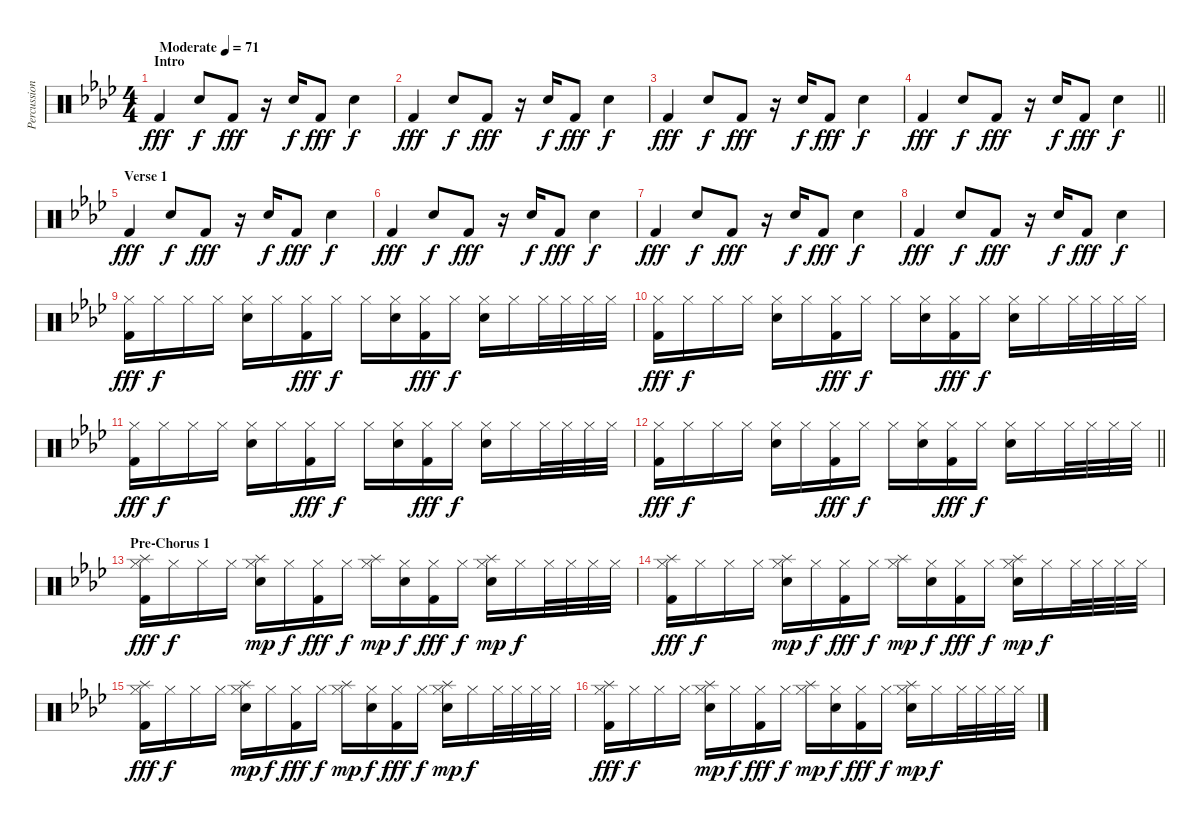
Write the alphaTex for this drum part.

\track ("Percussion" "Percussion") {instrument percussion}
\staff {score}
\articulation defaults
\ts (4 4)
\section ("" "Intro")
\tempo (71 "Moderate")
\clef neutral
\ks ab "Kick (hit) 2".4{dy fff} "Snare (hit) 2".8{dy f} "Kick (hit) 2".8{dy fff}
r.16 "Snare (hit) 2".16{dy f} "Kick (hit) 2".8{dy fff} "Snare (hit) 2".4{dy f} |
"Kick (hit) 2".4{dy fff} "Snare (hit) 2".8{dy f} "Kick (hit) 2".8{dy fff} r.16 "Snare (hit) 2".16{dy f} "Kick (hit) 2".8{dy fff} "Snare (hit) 2".4{dy f} |
"Kick (hit) 2".4{dy fff} "Snare (hit) 2".8{dy f} "Kick (hit) 2".8{dy fff} r.16 "Snare (hit) 2".16{dy f} "Kick (hit) 2".8{dy fff} "Snare (hit) 2".4{dy f} |
\barLineRight lightlight "Kick (hit) 2".4{dy fff} "Snare (hit) 2".8{dy f} "Kick (hit) 2".8{dy fff}
r.16 "Snare (hit) 2".16{dy f} "Kick (hit) 2".8{dy fff} "Snare (hit) 2".4{dy f} |
\section ("" "Verse 1")
"Kick (hit) 2".4{dy fff} "Snare (hit) 2".8{dy f} "Kick (hit) 2".8{dy fff} r.16 "Snare (hit) 2".16{dy f} "Kick (hit) 2".8{dy fff} "Snare (hit) 2".4{dy f} |
"Kick (hit) 2".4{dy fff} "Snare (hit) 2".8{dy f} "Kick (hit) 2".8{dy fff} r.16 "Snare (hit) 2".16{dy f} "Kick (hit) 2".8{dy fff} "Snare (hit) 2".4{dy f} |
"Kick (hit) 2".4{dy fff} "Snare (hit) 2".8{dy f} "Kick (hit) 2".8{dy fff} r.16 "Snare (hit) 2".16{dy f} "Kick (hit) 2".8{dy fff} "Snare (hit) 2".4{dy f} |
"Kick (hit) 2".4{dy fff} "Snare (hit) 2".8{dy f} "Kick (hit) 2".8{dy fff} r.16 "Snare (hit) 2".16{dy f} "Kick (hit) 2".8{dy fff} "Snare (hit) 2".4{dy f} |
("Hi-Hat (closed)" "Kick (hit) 2").16{dy fff} "Hi-Hat (closed)".16{dy f} "Hi-Hat (closed)".16 "Hi-Hat (closed)".16 ("Hi-Hat (closed)" "Snare (hit) 2").16 "Hi-Hat (closed)".16 ("Hi-Hat (closed)" "Kick (hit) 2").16{dy fff} "Hi-Hat (closed)".16{dy f} "Hi-Hat (closed)".16 ("Hi-Hat (closed)" "Snare (hit) 2").16 ("Hi-Hat (closed)" "Kick (hit) 2").16{dy fff} "Hi-Hat (closed)".16{dy f} ("Hi-Hat (closed)" "Snare (hit) 2").16 "Hi-Hat (closed)".16 "Hi-Hat (closed)".32 "Hi-Hat (closed)".32 "Hi-Hat (closed)".32 "Hi-Hat (closed)".32 |
("Hi-Hat (closed)" "Kick (hit) 2").16{dy fff} "Hi-Hat (closed)".16{dy f} "Hi-Hat (closed)".16 "Hi-Hat (closed)".16 ("Hi-Hat (closed)" "Snare (hit) 2").16 "Hi-Hat (closed)".16 ("Hi-Hat (closed)" "Kick (hit) 2").16{dy fff} "Hi-Hat (closed)".16{dy f} "Hi-Hat (closed)".16 ("Hi-Hat (closed)" "Snare (hit) 2").16 ("Hi-Hat (closed)" "Kick (hit) 2").16{dy fff} "Hi-Hat (closed)".16{dy f} ("Hi-Hat (closed)" "Snare (hit) 2").16 "Hi-Hat (closed)".16 "Hi-Hat (closed)".32 "Hi-Hat (closed)".32 "Hi-Hat (closed)".32 "Hi-Hat (closed)".32 |
("Hi-Hat (closed)" "Kick (hit) 2").16{dy fff} "Hi-Hat (closed)".16{dy f} "Hi-Hat (closed)".16 "Hi-Hat (closed)".16 ("Hi-Hat (closed)" "Snare (hit) 2").16 "Hi-Hat (closed)".16 ("Hi-Hat (closed)" "Kick (hit) 2").16{dy fff} "Hi-Hat (closed)".16{dy f} "Hi-Hat (closed)".16 ("Hi-Hat (closed)" "Snare (hit) 2").16 ("Hi-Hat (closed)" "Kick (hit) 2").16{dy fff} "Hi-Hat (closed)".16{dy f} ("Hi-Hat (closed)" "Snare (hit) 2").16 "Hi-Hat (closed)".16 "Hi-Hat (closed)".32 "Hi-Hat (closed)".32 "Hi-Hat (closed)".32 "Hi-Hat (closed)".32 |
\barLineRight lightlight
("Hi-Hat (closed)" "Kick (hit) 2").16{dy fff} "Hi-Hat (closed)".16{dy f} "Hi-Hat (closed)".16 "Hi-Hat (closed)".16 ("Hi-Hat (closed)" "Snare (hit) 2").16 "Hi-Hat (closed)".16 ("Hi-Hat (closed)" "Kick (hit) 2").16{dy fff} "Hi-Hat (closed)".16{dy f} "Hi-Hat (closed)".16 ("Hi-Hat (closed)" "Snare (hit) 2").16 ("Hi-Hat (closed)" "Kick (hit) 2").16{dy fff} "Hi-Hat (closed)".16{dy f} ("Hi-Hat (closed)" "Snare (hit) 2").16 "Hi-Hat (closed)".16 "Hi-Hat (closed)".32 "Hi-Hat (closed)".32 "Hi-Hat (closed)".32 "Hi-Hat (closed)".32 |
\section ("" "Pre-Chorus 1")
("Splash (hit)" "Hi-Hat (closed)" "Kick (hit) 2").16{dy fff} "Hi-Hat (closed)".16{dy f} "Hi-Hat (closed)".16 "Hi-Hat (closed)".16 ("Splash (hit)" "Hi-Hat (closed)" "Snare (hit) 2").16{dy mp} "Hi-Hat (closed)".16{dy f} ("Hi-Hat (closed)" "Kick (hit) 2").16{dy fff} "Hi-Hat (closed)".16{dy f} ("Splash (hit)" "Hi-Hat (closed)").16{dy mp} ("Hi-Hat (closed)" "Snare (hit) 2").16{dy f} ("Hi-Hat (closed)" "Kick (hit) 2").16{dy fff} "Hi-Hat (closed)".16{dy f} ("Splash (hit)" "Hi-Hat (closed)" "Snare (hit) 2").16{dy mp} "Hi-Hat (closed)".16{dy f} "Hi-Hat (closed)".32 "Hi-Hat (closed)".32 "Hi-Hat (closed)".32 "Hi-Hat (closed)".32 |
("Splash (hit)" "Hi-Hat (closed)" "Kick (hit) 2").16{dy fff} "Hi-Hat (closed)".16{dy f} "Hi-Hat (closed)".16 "Hi-Hat (closed)".16 ("Splash (hit)" "Hi-Hat (closed)" "Snare (hit) 2").16{dy mp} "Hi-Hat (closed)".16{dy f} ("Hi-Hat (closed)" "Kick (hit) 2").16{dy fff} "Hi-Hat (closed)".16{dy f} ("Splash (hit)" "Hi-Hat (closed)").16{dy mp} ("Hi-Hat (closed)" "Snare (hit) 2").16{dy f} ("Hi-Hat (closed)" "Kick (hit) 2").16{dy fff} "Hi-Hat (closed)".16{dy f} ("Splash (hit)" "Hi-Hat (closed)" "Snare (hit) 2").16{dy mp} "Hi-Hat (closed)".16{dy f} "Hi-Hat (closed)".32 "Hi-Hat (closed)".32 "Hi-Hat (closed)".32 "Hi-Hat (closed)".32 |
("Splash (hit)" "Hi-Hat (closed)" "Kick (hit) 2").16{dy fff} "Hi-Hat (closed)".16{dy f} "Hi-Hat (closed)".16 "Hi-Hat (closed)".16 ("Splash (hit)" "Hi-Hat (closed)" "Snare (hit) 2").16{dy mp} "Hi-Hat (closed)".16{dy f} ("Hi-Hat (closed)" "Kick (hit) 2").16{dy fff} "Hi-Hat (closed)".16{dy f} ("Splash (hit)" "Hi-Hat (closed)").16{dy mp} ("Hi-Hat (closed)" "Snare (hit) 2").16{dy f} ("Hi-Hat (closed)" "Kick (hit) 2").16{dy fff} "Hi-Hat (closed)".16{dy f} ("Splash (hit)" "Hi-Hat (closed)" "Snare (hit) 2").16{dy mp} "Hi-Hat (closed)".16{dy f} "Hi-Hat (closed)".32 "Hi-Hat (closed)".32 "Hi-Hat (closed)".32 "Hi-Hat (closed)".32 |
("Splash (hit)" "Hi-Hat (closed)" "Kick (hit) 2").16{dy fff} "Hi-Hat (closed)".16{dy f} "Hi-Hat (closed)".16 "Hi-Hat (closed)".16 ("Splash (hit)" "Hi-Hat (closed)" "Snare (hit) 2").16{dy mp} "Hi-Hat (closed)".16{dy f} ("Hi-Hat (closed)" "Kick (hit) 2").16{dy fff} "Hi-Hat (closed)".16{dy f} ("Splash (hit)" "Hi-Hat (closed)").16{dy mp} ("Hi-Hat (closed)" "Snare (hit) 2").16{dy f} ("Hi-Hat (closed)" "Kick (hit) 2").16{dy fff} "Hi-Hat (closed)".16{dy f} ("Splash (hit)" "Hi-Hat (closed)" "Snare (hit) 2").16{dy mp} "Hi-Hat (closed)".16{dy f} "Hi-Hat (closed)".32 "Hi-Hat (closed)".32 "Hi-Hat (closed)".32 "Hi-Hat (closed)".32
